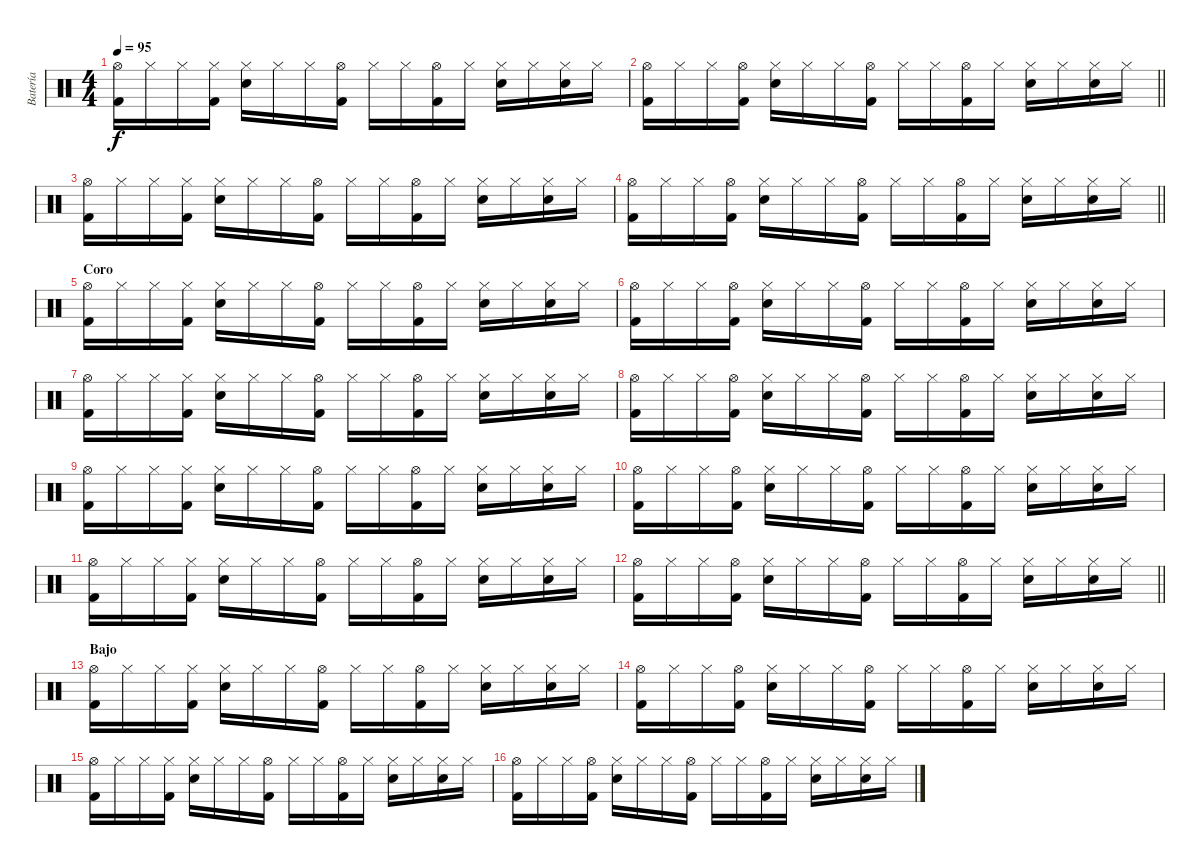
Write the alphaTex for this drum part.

\track ("Batería" "Batería") {instrument percussion}
\staff {score}
\articulation defaults
\ts (4 4)
\tempo 95
\clef neutral
\ks c
("Hi-Hat (open)" "Kick (hit) 2").16{dy f} "Hi-Hat (closed)".16 "Hi-Hat (closed)".16 ("Hi-Hat (closed)" "Kick (hit) 2").16 ("Hi-Hat (closed)" "Electric Snare (hit)").16 "Hi-Hat (closed)".16 "Hi-Hat (closed)".16 ("Hi-Hat (open)" "Kick (hit) 2").16 "Hi-Hat (closed)".16 "Hi-Hat (closed)".16 ("Hi-Hat (open)" "Kick (hit) 2").16 "Hi-Hat (closed)".16 ("Hi-Hat (closed)" "Electric Snare (hit)").16 "Hi-Hat (closed)".16 ("Hi-Hat (closed)" "Electric Snare (hit)").16 "Hi-Hat (closed)".16 |
\barLineRight lightlight
("Hi-Hat (open)" "Kick (hit) 2").16 "Hi-Hat (closed)".16 "Hi-Hat (closed)".16 ("Hi-Hat (open)" "Kick (hit) 2").16 ("Hi-Hat (closed)" "Electric Snare (hit)").16 "Hi-Hat (closed)".16 "Hi-Hat (closed)".16 ("Hi-Hat (open)" "Kick (hit) 2").16 "Hi-Hat (closed)".16 "Hi-Hat (closed)".16 ("Hi-Hat (open)" "Kick (hit) 2").16 "Hi-Hat (closed)".16 ("Hi-Hat (closed)" "Electric Snare (hit)").16 "Hi-Hat (closed)".16 ("Hi-Hat (closed)" "Electric Snare (hit)").16 "Hi-Hat (closed)".16 |
("Hi-Hat (open)" "Kick (hit) 2").16 "Hi-Hat (closed)".16 "Hi-Hat (closed)".16 ("Hi-Hat (closed)" "Kick (hit) 2").16 ("Hi-Hat (closed)" "Electric Snare (hit)").16 "Hi-Hat (closed)".16 "Hi-Hat (closed)".16 ("Hi-Hat (open)" "Kick (hit) 2").16 "Hi-Hat (closed)".16 "Hi-Hat (closed)".16 ("Hi-Hat (open)" "Kick (hit) 2").16 "Hi-Hat (closed)".16 ("Hi-Hat (closed)" "Electric Snare (hit)").16 "Hi-Hat (closed)".16 ("Hi-Hat (closed)" "Electric Snare (hit)").16 "Hi-Hat (closed)".16 |
\barLineRight lightlight
("Hi-Hat (open)" "Kick (hit) 2").16 "Hi-Hat (closed)".16 "Hi-Hat (closed)".16 ("Hi-Hat (open)" "Kick (hit) 2").16 ("Hi-Hat (closed)" "Electric Snare (hit)").16 "Hi-Hat (closed)".16 "Hi-Hat (closed)".16 ("Hi-Hat (open)" "Kick (hit) 2").16 "Hi-Hat (closed)".16 "Hi-Hat (closed)".16 ("Hi-Hat (open)" "Kick (hit) 2").16 "Hi-Hat (closed)".16 ("Hi-Hat (closed)" "Electric Snare (hit)").16 "Hi-Hat (closed)".16 ("Hi-Hat (closed)" "Electric Snare (hit)").16 "Hi-Hat (closed)".16 |
\section ("" "Coro")
("Hi-Hat (open)" "Kick (hit) 2").16 "Hi-Hat (closed)".16 "Hi-Hat (closed)".16 ("Hi-Hat (closed)" "Kick (hit) 2").16 ("Hi-Hat (closed)" "Electric Snare (hit)").16 "Hi-Hat (closed)".16 "Hi-Hat (closed)".16 ("Hi-Hat (open)" "Kick (hit) 2").16 "Hi-Hat (closed)".16 "Hi-Hat (closed)".16 ("Hi-Hat (open)" "Kick (hit) 2").16 "Hi-Hat (closed)".16 ("Hi-Hat (closed)" "Electric Snare (hit)").16 "Hi-Hat (closed)".16 ("Hi-Hat (closed)" "Electric Snare (hit)").16 "Hi-Hat (closed)".16 |
("Hi-Hat (open)" "Kick (hit) 2").16 "Hi-Hat (closed)".16 "Hi-Hat (closed)".16 ("Hi-Hat (open)" "Kick (hit) 2").16 ("Hi-Hat (closed)" "Electric Snare (hit)").16 "Hi-Hat (closed)".16 "Hi-Hat (closed)".16 ("Hi-Hat (open)" "Kick (hit) 2").16 "Hi-Hat (closed)".16 "Hi-Hat (closed)".16 ("Hi-Hat (open)" "Kick (hit) 2").16 "Hi-Hat (closed)".16 ("Hi-Hat (closed)" "Electric Snare (hit)").16 "Hi-Hat (closed)".16 ("Hi-Hat (closed)" "Electric Snare (hit)").16 "Hi-Hat (closed)".16 |
("Hi-Hat (open)" "Kick (hit) 2").16 "Hi-Hat (closed)".16 "Hi-Hat (closed)".16 ("Hi-Hat (closed)" "Kick (hit) 2").16 ("Hi-Hat (closed)" "Electric Snare (hit)").16 "Hi-Hat (closed)".16 "Hi-Hat (closed)".16 ("Hi-Hat (open)" "Kick (hit) 2").16 "Hi-Hat (closed)".16 "Hi-Hat (closed)".16 ("Hi-Hat (open)" "Kick (hit) 2").16 "Hi-Hat (closed)".16 ("Hi-Hat (closed)" "Electric Snare (hit)").16 "Hi-Hat (closed)".16 ("Hi-Hat (closed)" "Electric Snare (hit)").16 "Hi-Hat (closed)".16 |
("Hi-Hat (open)" "Kick (hit) 2").16 "Hi-Hat (closed)".16 "Hi-Hat (closed)".16 ("Hi-Hat (open)" "Kick (hit) 2").16 ("Hi-Hat (closed)" "Electric Snare (hit)").16 "Hi-Hat (closed)".16 "Hi-Hat (closed)".16 ("Hi-Hat (open)" "Kick (hit) 2").16 "Hi-Hat (closed)".16 "Hi-Hat (closed)".16 ("Hi-Hat (open)" "Kick (hit) 2").16 "Hi-Hat (closed)".16 ("Hi-Hat (closed)" "Electric Snare (hit)").16 "Hi-Hat (closed)".16 ("Hi-Hat (closed)" "Electric Snare (hit)").16 "Hi-Hat (closed)".16 |
("Hi-Hat (open)" "Kick (hit) 2").16 "Hi-Hat (closed)".16 "Hi-Hat (closed)".16 ("Hi-Hat (closed)" "Kick (hit) 2").16 ("Hi-Hat (closed)" "Electric Snare (hit)").16 "Hi-Hat (closed)".16 "Hi-Hat (closed)".16 ("Hi-Hat (open)" "Kick (hit) 2").16 "Hi-Hat (closed)".16 "Hi-Hat (closed)".16 ("Hi-Hat (open)" "Kick (hit) 2").16 "Hi-Hat (closed)".16 ("Hi-Hat (closed)" "Electric Snare (hit)").16 "Hi-Hat (closed)".16 ("Hi-Hat (closed)" "Electric Snare (hit)").16 "Hi-Hat (closed)".16 |
("Hi-Hat (open)" "Kick (hit) 2").16 "Hi-Hat (closed)".16 "Hi-Hat (closed)".16 ("Hi-Hat (open)" "Kick (hit) 2").16 ("Hi-Hat (closed)" "Electric Snare (hit)").16 "Hi-Hat (closed)".16 "Hi-Hat (closed)".16 ("Hi-Hat (open)" "Kick (hit) 2").16 "Hi-Hat (closed)".16 "Hi-Hat (closed)".16 ("Hi-Hat (open)" "Kick (hit) 2").16 "Hi-Hat (closed)".16 ("Hi-Hat (closed)" "Electric Snare (hit)").16 "Hi-Hat (closed)".16 ("Hi-Hat (closed)" "Electric Snare (hit)").16 "Hi-Hat (closed)".16 |
("Hi-Hat (open)" "Kick (hit) 2").16 "Hi-Hat (closed)".16 "Hi-Hat (closed)".16 ("Hi-Hat (closed)" "Kick (hit) 2").16 ("Hi-Hat (closed)" "Electric Snare (hit)").16 "Hi-Hat (closed)".16 "Hi-Hat (closed)".16 ("Hi-Hat (open)" "Kick (hit) 2").16 "Hi-Hat (closed)".16 "Hi-Hat (closed)".16 ("Hi-Hat (open)" "Kick (hit) 2").16 "Hi-Hat (closed)".16 ("Hi-Hat (closed)" "Electric Snare (hit)").16 "Hi-Hat (closed)".16 ("Hi-Hat (closed)" "Electric Snare (hit)").16 "Hi-Hat (closed)".16 |
\barLineRight lightlight
("Hi-Hat (open)" "Kick (hit) 2").16 "Hi-Hat (closed)".16 "Hi-Hat (closed)".16 ("Hi-Hat (open)" "Kick (hit) 2").16 ("Hi-Hat (closed)" "Electric Snare (hit)").16 "Hi-Hat (closed)".16 "Hi-Hat (closed)".16 ("Hi-Hat (open)" "Kick (hit) 2").16 "Hi-Hat (closed)".16 "Hi-Hat (closed)".16 ("Hi-Hat (open)" "Kick (hit) 2").16 "Hi-Hat (closed)".16 ("Hi-Hat (closed)" "Electric Snare (hit)").16 "Hi-Hat (closed)".16 ("Hi-Hat (closed)" "Electric Snare (hit)").16 "Hi-Hat (closed)".16 |
\section ("" "Bajo")
("Hi-Hat (open)" "Kick (hit) 2").16 "Hi-Hat (closed)".16 "Hi-Hat (closed)".16 ("Hi-Hat (closed)" "Kick (hit) 2").16 ("Hi-Hat (closed)" "Electric Snare (hit)").16 "Hi-Hat (closed)".16 "Hi-Hat (closed)".16 ("Hi-Hat (open)" "Kick (hit) 2").16 "Hi-Hat (closed)".16 "Hi-Hat (closed)".16 ("Hi-Hat (open)" "Kick (hit) 2").16 "Hi-Hat (closed)".16 ("Hi-Hat (closed)" "Electric Snare (hit)").16 "Hi-Hat (closed)".16 ("Hi-Hat (closed)" "Electric Snare (hit)").16 "Hi-Hat (closed)".16 |
("Hi-Hat (open)" "Kick (hit) 2").16 "Hi-Hat (closed)".16 "Hi-Hat (closed)".16 ("Hi-Hat (open)" "Kick (hit) 2").16 ("Hi-Hat (closed)" "Electric Snare (hit)").16 "Hi-Hat (closed)".16 "Hi-Hat (closed)".16 ("Hi-Hat (open)" "Kick (hit) 2").16 "Hi-Hat (closed)".16 "Hi-Hat (closed)".16 ("Hi-Hat (open)" "Kick (hit) 2").16 "Hi-Hat (closed)".16 ("Hi-Hat (closed)" "Electric Snare (hit)").16 "Hi-Hat (closed)".16 ("Hi-Hat (closed)" "Electric Snare (hit)").16 "Hi-Hat (closed)".16 |
("Hi-Hat (open)" "Kick (hit) 2").16 "Hi-Hat (closed)".16 "Hi-Hat (closed)".16 ("Hi-Hat (closed)" "Kick (hit) 2").16 ("Hi-Hat (closed)" "Electric Snare (hit)").16 "Hi-Hat (closed)".16 "Hi-Hat (closed)".16 ("Hi-Hat (open)" "Kick (hit) 2").16 "Hi-Hat (closed)".16 "Hi-Hat (closed)".16 ("Hi-Hat (open)" "Kick (hit) 2").16 "Hi-Hat (closed)".16 ("Hi-Hat (closed)" "Electric Snare (hit)").16 "Hi-Hat (closed)".16 ("Hi-Hat (closed)" "Electric Snare (hit)").16 "Hi-Hat (closed)".16 |
("Hi-Hat (open)" "Kick (hit) 2").16 "Hi-Hat (closed)".16 "Hi-Hat (closed)".16 ("Hi-Hat (open)" "Kick (hit) 2").16 ("Hi-Hat (closed)" "Electric Snare (hit)").16 "Hi-Hat (closed)".16 "Hi-Hat (closed)".16 ("Hi-Hat (open)" "Kick (hit) 2").16 "Hi-Hat (closed)".16 "Hi-Hat (closed)".16 ("Hi-Hat (open)" "Kick (hit) 2").16 "Hi-Hat (closed)".16 ("Hi-Hat (closed)" "Electric Snare (hit)").16 "Hi-Hat (closed)".16 ("Hi-Hat (closed)" "Electric Snare (hit)").16 "Hi-Hat (closed)".16
